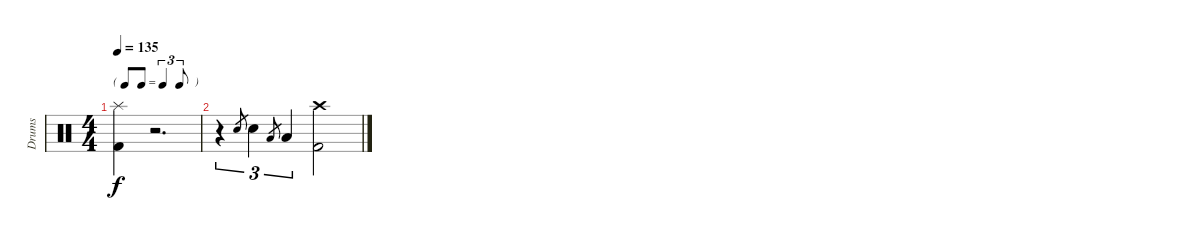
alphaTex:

\track ("Drums" "Drums") {instrument percussion}
\staff {score}
\articulation defaults
\ts (4 4)
\tf triplet8th
\tempo 135
\clef neutral
\ks c
("Splash (hit)" "Kick (hit) 2").4{dy f} r.2{d} |
r.4{tu (3 2)} "Snare (hit) 2".8{gr} "Snare (hit) 2".4{tu (3 2)} "Low Tom (hit)".8{gr} "Low Tom (hit)".4{tu (3 2)} ("Crash high (hit)" "Kick (hit) 2").2
